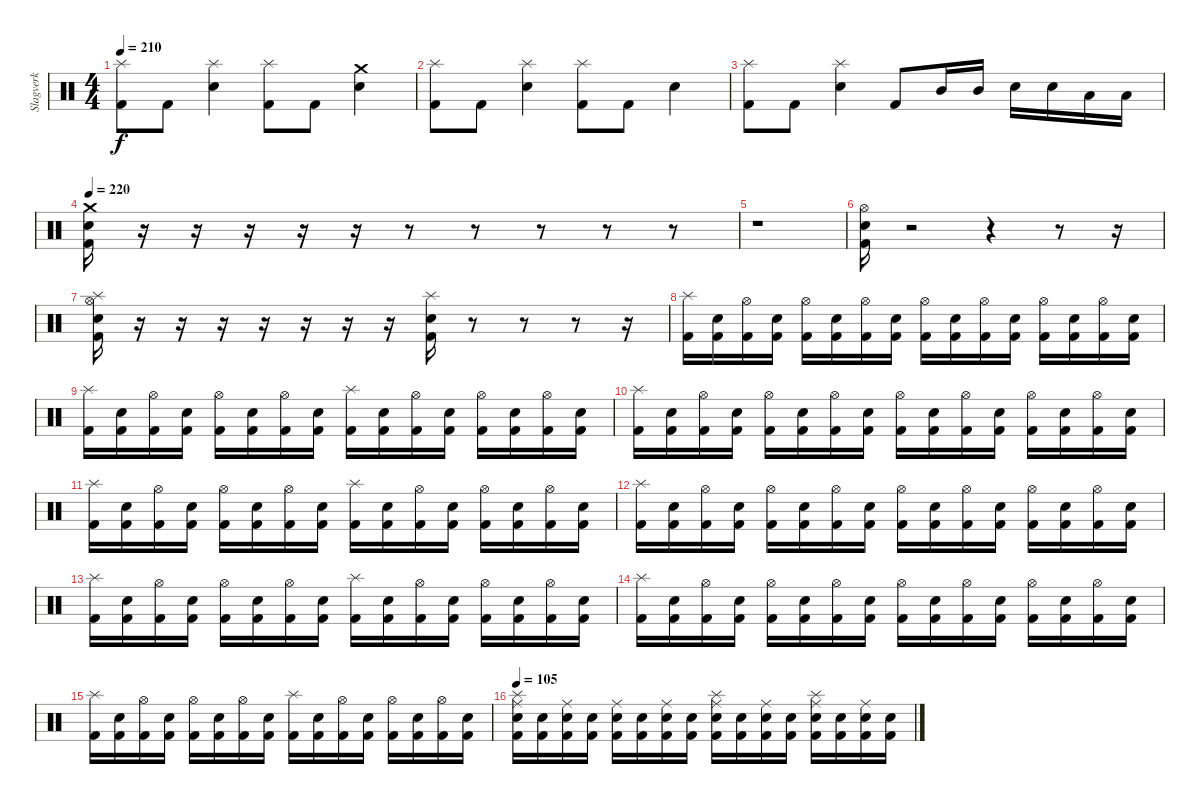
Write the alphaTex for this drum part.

\track ("Slagverk" "Slagverk") {instrument percussion}
\staff {score}
\articulation defaults
\ts (4 4)
\tempo 210
\clef neutral
\ks c
("Splash (hit)" "Kick (hit) 2").8{dy f} "Kick (hit) 2".8 ("Splash (hit)" "Electric Snare (hit)").4 ("Splash (hit)" "Kick (hit) 2").8 "Kick (hit) 2".8 ("Crash medium (hit)" "Electric Snare (hit)").4 |
("Splash (hit)" "Kick (hit) 2").8 "Kick (hit) 2".8 ("Splash (hit)" "Electric Snare (hit)").4 ("Splash (hit)" "Kick (hit) 2").8 "Kick (hit) 2".8 "Electric Snare (hit)".4 |
("Splash (hit)" "Kick (hit) 2").8 "Kick (hit) 2".8 ("Splash (hit)" "Electric Snare (hit)").4 "Kick (hit) 2".8 "Mid Tom (hit)".16 "Mid Tom (hit)".16 "Electric Snare (hit)".16 "Electric Snare (hit)".16 "Low Tom (hit)".16 "Low Tom (hit)".16 |
\tempo 220
("Crash medium (hit)" "Electric Snare (hit)" "Kick (hit) 2").16 r.16 r.16 r.16 r.16 r.16 r.8 r.8 r.8 r.8 r.8 |
r.1 |
("Hi-Hat (open)" "Electric Snare (hit)" "Kick (hit) 2").16 r.2 r.4 r.8 r.16 |
("Hi-Hat (open)" "Splash (hit)" "Electric Snare (hit)" "Kick (hit) 2").16 r.16 r.16 r.16 r.16 r.16 r.16 r.16 ("Splash (hit)" "Electric Snare (hit)" "Kick (hit) 2").16 r.8 r.8 r.8 r.16 |
("Splash (hit)" "Kick (hit) 2").16 ("Electric Snare (hit)" "Kick (hit) 2").16 ("Hi-Hat (open)" "Kick (hit) 2").16 ("Electric Snare (hit)" "Kick (hit) 2").16 ("Hi-Hat (open)" "Kick (hit) 2").16 ("Electric Snare (hit)" "Kick (hit) 2").16 ("Hi-Hat (open)" "Kick (hit) 2").16 ("Electric Snare (hit)" "Kick (hit) 2").16 ("Hi-Hat (open)" "Kick (hit) 2").16 ("Electric Snare (hit)" "Kick (hit) 2").16 ("Hi-Hat (open)" "Kick (hit) 2").16 ("Electric Snare (hit)" "Kick (hit) 2").16 ("Hi-Hat (open)" "Kick (hit) 2").16 ("Electric Snare (hit)" "Kick (hit) 2").16 ("Hi-Hat (open)" "Kick (hit) 2").16 ("Electric Snare (hit)" "Kick (hit) 2").16 |
("Splash (hit)" "Kick (hit) 2").16 ("Electric Snare (hit)" "Kick (hit) 2").16 ("Hi-Hat (open)" "Kick (hit) 2").16 ("Electric Snare (hit)" "Kick (hit) 2").16 ("Hi-Hat (open)" "Kick (hit) 2").16 ("Electric Snare (hit)" "Kick (hit) 2").16 ("Hi-Hat (open)" "Kick (hit) 2").16 ("Electric Snare (hit)" "Kick (hit) 2").16 ("Splash (hit)" "Kick (hit) 2").16 ("Electric Snare (hit)" "Kick (hit) 2").16 ("Hi-Hat (open)" "Kick (hit) 2").16 ("Electric Snare (hit)" "Kick (hit) 2").16 ("Hi-Hat (open)" "Kick (hit) 2").16 ("Electric Snare (hit)" "Kick (hit) 2").16 ("Hi-Hat (open)" "Kick (hit) 2").16 ("Electric Snare (hit)" "Kick (hit) 2").16 |
("Splash (hit)" "Kick (hit) 2").16 ("Electric Snare (hit)" "Kick (hit) 2").16 ("Hi-Hat (open)" "Kick (hit) 2").16 ("Electric Snare (hit)" "Kick (hit) 2").16 ("Hi-Hat (open)" "Kick (hit) 2").16 ("Electric Snare (hit)" "Kick (hit) 2").16 ("Hi-Hat (open)" "Kick (hit) 2").16 ("Electric Snare (hit)" "Kick (hit) 2").16 ("Hi-Hat (open)" "Kick (hit) 2").16 ("Electric Snare (hit)" "Kick (hit) 2").16 ("Hi-Hat (open)" "Kick (hit) 2").16 ("Electric Snare (hit)" "Kick (hit) 2").16 ("Hi-Hat (open)" "Kick (hit) 2").16 ("Electric Snare (hit)" "Kick (hit) 2").16 ("Hi-Hat (open)" "Kick (hit) 2").16 ("Electric Snare (hit)" "Kick (hit) 2").16 |
("Splash (hit)" "Kick (hit) 2").16 ("Electric Snare (hit)" "Kick (hit) 2").16 ("Hi-Hat (open)" "Kick (hit) 2").16 ("Electric Snare (hit)" "Kick (hit) 2").16 ("Hi-Hat (open)" "Kick (hit) 2").16 ("Electric Snare (hit)" "Kick (hit) 2").16 ("Hi-Hat (open)" "Kick (hit) 2").16 ("Electric Snare (hit)" "Kick (hit) 2").16 ("Splash (hit)" "Kick (hit) 2").16 ("Electric Snare (hit)" "Kick (hit) 2").16 ("Hi-Hat (open)" "Kick (hit) 2").16 ("Electric Snare (hit)" "Kick (hit) 2").16 ("Hi-Hat (open)" "Kick (hit) 2").16 ("Electric Snare (hit)" "Kick (hit) 2").16 ("Hi-Hat (open)" "Kick (hit) 2").16 ("Electric Snare (hit)" "Kick (hit) 2").16 |
("Splash (hit)" "Kick (hit) 2").16 ("Electric Snare (hit)" "Kick (hit) 2").16 ("Hi-Hat (open)" "Kick (hit) 2").16 ("Electric Snare (hit)" "Kick (hit) 2").16 ("Hi-Hat (open)" "Kick (hit) 2").16 ("Electric Snare (hit)" "Kick (hit) 2").16 ("Hi-Hat (open)" "Kick (hit) 2").16 ("Electric Snare (hit)" "Kick (hit) 2").16 ("Hi-Hat (open)" "Kick (hit) 2").16 ("Electric Snare (hit)" "Kick (hit) 2").16 ("Hi-Hat (open)" "Kick (hit) 2").16 ("Electric Snare (hit)" "Kick (hit) 2").16 ("Hi-Hat (open)" "Kick (hit) 2").16 ("Electric Snare (hit)" "Kick (hit) 2").16 ("Hi-Hat (open)" "Kick (hit) 2").16 ("Electric Snare (hit)" "Kick (hit) 2").16 |
("Splash (hit)" "Kick (hit) 2").16 ("Electric Snare (hit)" "Kick (hit) 2").16 ("Hi-Hat (open)" "Kick (hit) 2").16 ("Electric Snare (hit)" "Kick (hit) 2").16 ("Hi-Hat (open)" "Kick (hit) 2").16 ("Electric Snare (hit)" "Kick (hit) 2").16 ("Hi-Hat (open)" "Kick (hit) 2").16 ("Electric Snare (hit)" "Kick (hit) 2").16 ("Splash (hit)" "Kick (hit) 2").16 ("Electric Snare (hit)" "Kick (hit) 2").16 ("Hi-Hat (open)" "Kick (hit) 2").16 ("Electric Snare (hit)" "Kick (hit) 2").16 ("Hi-Hat (open)" "Kick (hit) 2").16 ("Electric Snare (hit)" "Kick (hit) 2").16 ("Hi-Hat (open)" "Kick (hit) 2").16 ("Electric Snare (hit)" "Kick (hit) 2").16 |
("Splash (hit)" "Kick (hit) 2").16 ("Electric Snare (hit)" "Kick (hit) 2").16 ("Hi-Hat (open)" "Kick (hit) 2").16 ("Electric Snare (hit)" "Kick (hit) 2").16 ("Hi-Hat (open)" "Kick (hit) 2").16 ("Electric Snare (hit)" "Kick (hit) 2").16 ("Hi-Hat (open)" "Kick (hit) 2").16 ("Electric Snare (hit)" "Kick (hit) 2").16 ("Hi-Hat (open)" "Kick (hit) 2").16 ("Electric Snare (hit)" "Kick (hit) 2").16 ("Hi-Hat (open)" "Kick (hit) 2").16 ("Electric Snare (hit)" "Kick (hit) 2").16 ("Hi-Hat (open)" "Kick (hit) 2").16 ("Electric Snare (hit)" "Kick (hit) 2").16 ("Hi-Hat (open)" "Kick (hit) 2").16 ("Electric Snare (hit)" "Kick (hit) 2").16 |
("Splash (hit)" "Kick (hit) 2").16 ("Electric Snare (hit)" "Kick (hit) 2").16 ("Hi-Hat (open)" "Kick (hit) 2").16 ("Electric Snare (hit)" "Kick (hit) 2").16 ("Hi-Hat (open)" "Kick (hit) 2").16 ("Electric Snare (hit)" "Kick (hit) 2").16 ("Hi-Hat (open)" "Kick (hit) 2").16 ("Electric Snare (hit)" "Kick (hit) 2").16 ("Splash (hit)" "Kick (hit) 2").16 ("Electric Snare (hit)" "Kick (hit) 2").16 ("Hi-Hat (open)" "Kick (hit) 2").16 ("Electric Snare (hit)" "Kick (hit) 2").16 ("Hi-Hat (open)" "Kick (hit) 2").16 ("Electric Snare (hit)" "Kick (hit) 2").16 ("Hi-Hat (open)" "Kick (hit) 2").16 ("Electric Snare (hit)" "Kick (hit) 2").16 |
\tempo 105
("Ride (middle)" "Splash (hit)" "Electric Snare (hit)" "Kick (hit) 2").16 ("Electric Snare (hit)" "Kick (hit) 2").16 ("Ride (middle)" "Electric Snare (hit)" "Kick (hit) 2").16 ("Electric Snare (hit)" "Kick (hit) 2").16 ("Ride (middle)" "Electric Snare (hit)" "Kick (hit) 2").16 ("Electric Snare (hit)" "Kick (hit) 2").16 ("Ride (middle)" "Electric Snare (hit)" "Kick (hit) 2").16 ("Electric Snare (hit)" "Kick (hit) 2").16 ("Ride (middle)" "Splash (hit)" "Electric Snare (hit)" "Kick (hit) 2").16 ("Electric Snare (hit)" "Kick (hit) 2").16 ("Ride (middle)" "Electric Snare (hit)" "Kick (hit) 2").16 ("Electric Snare (hit)" "Kick (hit) 2").16 ("Ride (middle)" "Splash (hit)" "Electric Snare (hit)" "Kick (hit) 2").16 ("Electric Snare (hit)" "Kick (hit) 2").16 ("Ride (middle)" "Electric Snare (hit)" "Kick (hit) 2").16 ("Electric Snare (hit)" "Kick (hit) 2").16
